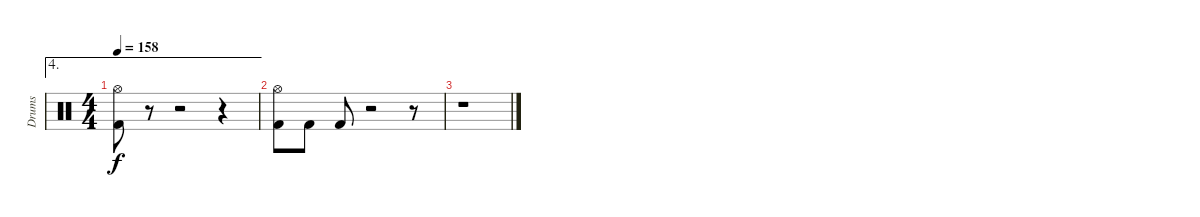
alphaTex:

\track ("Drums" "Drums") {instrument percussion}
\staff {score}
\articulation defaults
\ae 4
\ts (4 4)
\tempo 158
\clef neutral
\ks c
("Hi-Hat (open)" "Kick (hit) 2").8{dy f} r.8 r.2 r.4 |
("Hi-Hat (open)" "Kick (hit) 2").8 "Kick (hit) 2".8 "Kick (hit) 2".8 r.2 r.8 |
r.1
